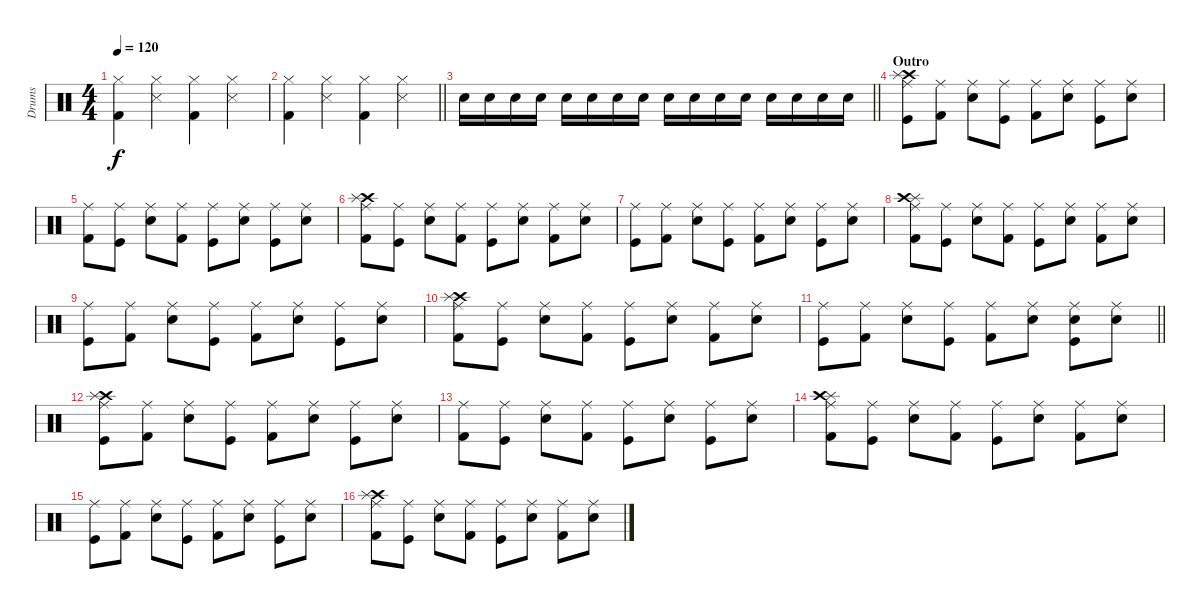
\track ("Drums" "Drums") {instrument percussion}
\staff {score}
\articulation defaults
\ts (4 4)
\tempo 120
\clef neutral
\ks c
("Kick (hit) 2" "Hi-Hat (closed)").4{dy f} ("Metronome (hit)" "Hi-Hat (closed)").4 ("Kick (hit) 2" "Hi-Hat (closed)").4 ("Metronome (hit)" "Hi-Hat (closed)").4 |
\barLineRight lightlight
("Kick (hit) 2" "Hi-Hat (closed)").4 ("Metronome (hit)" "Hi-Hat (closed)").4 ("Kick (hit) 2" "Hi-Hat (closed)").4 ("Metronome (hit)" "Hi-Hat (closed)").4 |
\barLineRight lightlight "Snare (hit) 2".16 "Snare (hit) 2".16 "Snare (hit) 2".16 "Snare (hit) 2".16 "Snare (hit) 2".16 "Snare (hit) 2".16 "Snare (hit) 2".16 "Snare (hit) 2".16 "Snare (hit) 2".16 "Snare (hit) 2".16 "Snare (hit) 2".16 "Snare (hit) 2".16 "Snare (hit) 2".16 "Snare (hit) 2".16 "Snare (hit) 2".16 "Snare (hit) 2".16
|
\section ("" "Outro")
("Kick (hit)" "Crash high (hit)" "Splash (hit)" "Ride (middle)").8 ("Kick (hit) 2" "Ride (middle)").8 ("Snare (hit) 2" "Ride (middle)").8 ("Kick (hit)" "Ride (middle)").8 ("Kick (hit) 2" "Ride (middle)").8 ("Snare (hit) 2" "Ride (middle)").8 ("Kick (hit)" "Ride (middle)").8 ("Snare (hit) 2" "Ride (middle)").8 |
("Kick (hit) 2" "Ride (middle)").8 ("Kick (hit)" "Ride (middle)").8 ("Snare (hit) 2" "Ride (middle)").8 ("Kick (hit) 2" "Ride (middle)").8 ("Kick (hit)" "Ride (middle)").8 ("Snare (hit) 2" "Ride (middle)").8 ("Kick (hit)" "Ride (middle)").8 ("Snare (hit) 2" "Ride (middle)").8 |
("Kick (hit) 2" "Crash high (hit)" "Splash (hit)" "Ride (middle)").8 ("Kick (hit)" "Ride (middle)").8 ("Snare (hit) 2" "Ride (middle)").8 ("Kick (hit) 2" "Ride (middle)").8 ("Kick (hit)" "Ride (middle)").8 ("Snare (hit) 2" "Ride (middle)").8 ("Kick (hit) 2" "Ride (middle)").8 ("Snare (hit) 2" "Ride (middle)").8 |
("Kick (hit)" "Ride (middle)").8 ("Kick (hit) 2" "Ride (middle)").8 ("Snare (hit) 2" "Ride (middle)").8 ("Kick (hit)" "Ride (middle)").8 ("Kick (hit) 2" "Ride (middle)").8 ("Snare (hit) 2" "Ride (middle)").8 ("Kick (hit)" "Ride (middle)").8 ("Snare (hit) 2" "Ride (middle)").8 |
("Kick (hit) 2" "Splash (hit)" "Crash high (hit)" "Ride (middle)").8 ("Kick (hit)" "Ride (middle)").8 ("Snare (hit) 2" "Ride (middle)").8 ("Kick (hit) 2" "Ride (middle)").8 ("Kick (hit)" "Ride (middle)").8 ("Snare (hit) 2" "Ride (middle)").8 ("Kick (hit) 2" "Ride (middle)").8 ("Snare (hit) 2" "Ride (middle)").8 |
("Kick (hit)" "Ride (middle)").8 ("Kick (hit) 2" "Ride (middle)").8 ("Snare (hit) 2" "Ride (middle)").8 ("Kick (hit)" "Ride (middle)").8 ("Kick (hit) 2" "Ride (middle)").8 ("Snare (hit) 2" "Ride (middle)").8 ("Kick (hit)" "Ride (middle)").8 ("Snare (hit) 2" "Ride (middle)").8 |
("Kick (hit) 2" "Crash high (hit)" "Splash (hit)" "Ride (middle)").8 ("Kick (hit)" "Ride (middle)").8 ("Snare (hit) 2" "Ride (middle)").8 ("Kick (hit) 2" "Ride (middle)").8 ("Kick (hit)" "Ride (middle)").8 ("Snare (hit) 2" "Ride (middle)").8 ("Kick (hit) 2" "Ride (middle)").8 ("Snare (hit) 2" "Ride (middle)").8 |
\barLineRight lightlight
("Kick (hit)" "Ride (middle)").8 ("Kick (hit) 2" "Ride (middle)").8 ("Snare (hit) 2" "Ride (middle)").8 ("Kick (hit)" "Ride (middle)").8 ("Kick (hit) 2" "Ride (middle)").8 ("Snare (hit) 2" "Ride (middle)").8 ("Kick (hit)" "Snare (hit) 2" "Ride (middle)").8 ("Snare (hit) 2" "Ride (middle)").8 |
("Kick (hit)" "Crash high (hit)" "Splash (hit)" "Ride (middle)").8 ("Kick (hit) 2" "Ride (middle)").8 ("Snare (hit) 2" "Ride (middle)").8 ("Kick (hit)" "Ride (middle)").8 ("Kick (hit) 2" "Ride (middle)").8 ("Snare (hit) 2" "Ride (middle)").8 ("Kick (hit)" "Ride (middle)").8 ("Snare (hit) 2" "Ride (middle)").8 |
("Kick (hit) 2" "Ride (middle)").8 ("Kick (hit)" "Ride (middle)").8 ("Snare (hit) 2" "Ride (middle)").8 ("Kick (hit) 2" "Ride (middle)").8 ("Kick (hit)" "Ride (middle)").8 ("Snare (hit) 2" "Ride (middle)").8 ("Kick (hit)" "Ride (middle)").8 ("Snare (hit) 2" "Ride (middle)").8 |
("Kick (hit) 2" "Splash (hit)" "Crash high (hit)" "Ride (middle)").8 ("Kick (hit)" "Ride (middle)").8 ("Snare (hit) 2" "Ride (middle)").8 ("Kick (hit) 2" "Ride (middle)").8 ("Kick (hit)" "Ride (middle)").8 ("Snare (hit) 2" "Ride (middle)").8 ("Kick (hit) 2" "Ride (middle)").8 ("Snare (hit) 2" "Ride (middle)").8 |
("Kick (hit)" "Ride (middle)").8 ("Kick (hit) 2" "Ride (middle)").8 ("Snare (hit) 2" "Ride (middle)").8 ("Kick (hit)" "Ride (middle)").8 ("Kick (hit) 2" "Ride (middle)").8 ("Snare (hit) 2" "Ride (middle)").8 ("Kick (hit)" "Ride (middle)").8 ("Snare (hit) 2" "Ride (middle)").8 |
("Kick (hit) 2" "Crash high (hit)" "Splash (hit)" "Ride (middle)").8 ("Kick (hit)" "Ride (middle)").8 ("Snare (hit) 2" "Ride (middle)").8 ("Kick (hit) 2" "Ride (middle)").8 ("Kick (hit)" "Ride (middle)").8 ("Snare (hit) 2" "Ride (middle)").8 ("Kick (hit) 2" "Ride (middle)").8 ("Snare (hit) 2" "Ride (middle)").8
